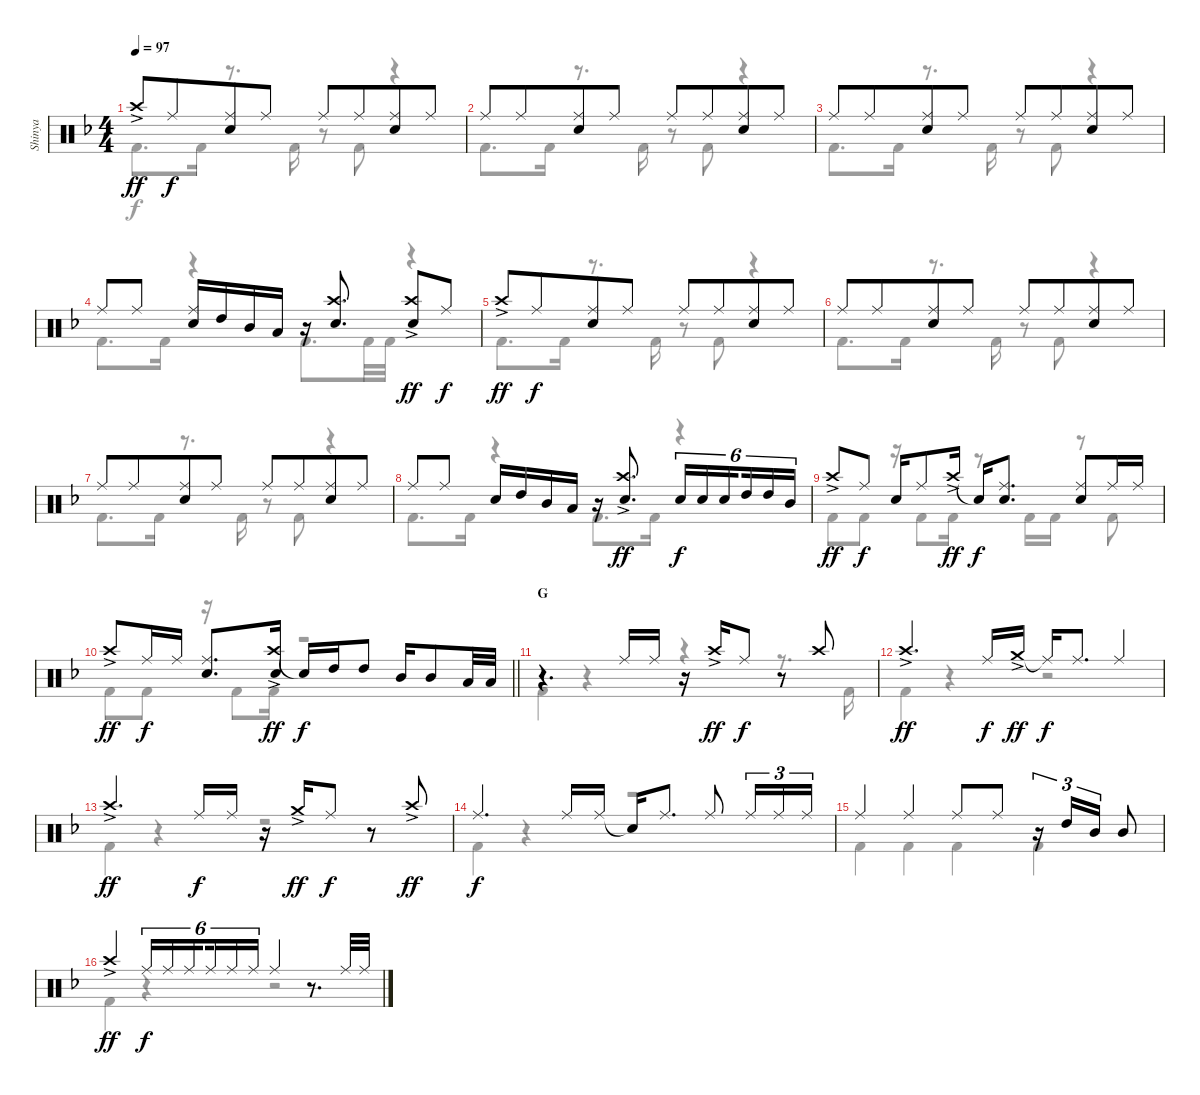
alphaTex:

\track ("Shinya" "Shinya") {mute instrument percussion}
\staff {score}
\articulation defaults
\voice
\ts (4 4)
\tempo 97
\clef neutral
\ks dminor "Crash high (hit)"{ac}.8{dy ff} "Ride (middle)".8{dy f beam merge}
("Ride (middle)" "Snare (hit) 2").8 "Ride (middle)".8 "Ride (middle)".8 "Ride (middle)".8{beam merge} ("Ride (middle)" "Snare (hit) 2").8 "Ride (middle)".8 |
"Ride (middle)".8 "Ride (middle)".8{beam merge} ("Ride (middle)" "Snare (hit) 2").8 "Ride (middle)".8 "Ride (middle)".8 "Ride (middle)".8{beam merge} ("Ride (middle)" "Snare (hit) 2").8 "Ride (middle)".8 |
"Ride (middle)".8 "Ride (middle)".8{beam merge} ("Ride (middle)" "Snare (hit) 2").8 "Ride (middle)".8 "Ride (middle)".8 "Ride (middle)".8{beam merge} ("Ride (middle)" "Snare (hit) 2").8 "Ride (middle)".8 |
"Ride (middle)".8 "Ride (middle)".8 ("Ride (middle)" "Snare (hit) 2").16 "High Tom (hit)".16 "Mid Tom (hit)".16 "Low Tom (hit)".16 r.16 ("Crash high (hit)" "Snare (hit) 2").8{d} ("Crash high (hit)"{ac} "Snare (hit) 2").8{dy ff} "Ride (middle)".8{dy f} |
"Crash high (hit)"{ac}.8{dy ff} "Ride (middle)".8{dy f beam merge} ("Ride (middle)" "Snare (hit) 2").8 "Ride (middle)".8 "Ride (middle)".8 "Ride (middle)".8{beam merge} ("Ride (middle)" "Snare (hit) 2").8 "Ride (middle)".8 |
"Ride (middle)".8 "Ride (middle)".8{beam merge} ("Ride (middle)" "Snare (hit) 2").8 "Ride (middle)".8 "Ride (middle)".8 "Ride (middle)".8{beam merge} ("Ride (middle)" "Snare (hit) 2").8 "Ride (middle)".8 |
"Ride (middle)".8 "Ride (middle)".8{beam merge} ("Ride (middle)" "Snare (hit) 2").8 "Ride (middle)".8 "Ride (middle)".8 "Ride (middle)".8{beam merge} ("Ride (middle)" "Snare (hit) 2").8 "Ride (middle)".8 |
"Ride (middle)".8 "Ride (middle)".8 "Snare (hit) 2".16 "High Tom (hit)".16 "Mid Tom (hit)".16 "Low Tom (hit)".16 r.16 ("Crash high (hit)"{ac} "Snare (hit) 2").8{d dy ff} "Snare (hit) 2".16{tu (6 4) dy f} "Snare (hit) 2".16{tu (6 4)} "Snare (hit) 2".16{tu (6 4) beam splitsecondary} "High Tom (hit)".16{tu (6 4)} "High Tom (hit)".16{tu (6 4)} "Mid Tom (hit)".16{tu (6 4)} |
"Crash high (hit)"{ac}.8{dy ff} "Ride (middle)".8{dy f} "Snare (hit) 2".16 "Ride (middle)".8 "Crash high (hit)"{ac}.16{dy ff} "Snare (hit)"{t}.16{dy f} ("Ride (middle)" "Snare (hit) 2").8{d} ("Ride (middle)" "Snare (hit) 2").8 "Ride (middle)".16 "Ride (middle)".16 |
\barLineRight lightlight "Crash high (hit)"{ac}.8{dy ff} "Ride (middle)".16{dy f} "Ride (middle)".16
("Ride (middle)" "Snare (hit) 2").8{d} ("Crash high (hit)"{ac} "Snare (hit) 2").16{dy ff} "Snare (hit)"{t}.16{dy f} "High Tom (hit)".16 "High Tom (hit)".8 "Mid Tom (hit)".16 "Mid Tom (hit)".8 "Low Tom (hit)".32 "Low Tom (hit)".32 |
\section ("" "G")
r.4{d} "Ride (middle)".16 "Ride (middle)".16 r.16 "Crash high (hit)"{ac}.16{dy ff} "Ride (middle)".8{dy f} r.8 "Crash high (hit)".8 |
"Crash high (hit)"{ac}.4{d dy ff} "Ride (middle)".16{dy f} "Crash medium (hit)"{ac}.16{dy ff} "Ride (middle)"{t}.16{dy f} "Ride (middle)".8{d} "Ride (middle)".4 |
"Crash high (hit)"{ac}.4{d dy ff} "Ride (middle)".16{dy f} "Ride (middle)".16 r.16 "Crash medium (hit)"{ac}.16{dy ff} "Ride (middle)".8{dy f} r.8 "Crash high (hit)"{ac}.8{dy ff} |
"Ride (middle)".4{d dy f} "Ride (middle)".16 "Ride (middle)".16 "Snare (hit)"{t}.16 "Ride (middle)".8{d} "Ride (middle)".8 "Ride (middle)".16{tu (3 2)} "Ride (middle)".16{tu (3 2)} "Ride (middle)".16{tu (3 2)} |
"Ride (middle)".4 "Ride (middle)".4 "Ride (middle)".8 "Ride (middle)".8 r.16{tu (3 2)} "High Tom (hit)".16{tu (3 2)} "Mid Tom (hit)".16{tu (3 2)} "Mid Tom (hit)".8 |
"Crash high (hit)"{ac}.4{dy ff} "Ride (middle)".16{tu (6 4) dy f} "Ride (middle)".16{tu (6 4)} "Ride (middle)".16{tu (6 4) beam splitsecondary} "Ride (middle)".16{tu (6 4)} "Ride (middle)".16{tu (6 4)} "Ride (middle)".16{tu (6 4)} "Ride (middle)".4 r.8{d} "Ride (middle)".32 "Ride (middle)".32
\voice
\clef neutral
\ottava regular
\simile none
\ks dminor "Kick (hit) 2".8{d dy f} "Kick (hit) 2".16
r.8{d} "Kick (hit) 2".16 r.8 "Kick (hit) 2".8 r.4 |
"Kick (hit) 2".8{d} "Kick (hit) 2".16 r.8{d} "Kick (hit) 2".16 r.8 "Kick (hit) 2".8 r.4 |
"Kick (hit) 2".8{d} "Kick (hit) 2".16 r.8{d} "Kick (hit) 2".16 r.8 "Kick (hit) 2".8 r.4 |
"Kick (hit) 2".8{d} "Kick (hit) 2".16 r.4 "Kick (hit) 2".8{d} "Kick (hit) 2".32 "Kick (hit) 2".32 r.4 |
"Kick (hit) 2".8{d} "Kick (hit) 2".16 r.8{d} "Kick (hit) 2".16 r.8 "Kick (hit) 2".8 r.4 |
"Kick (hit) 2".8{d} "Kick (hit) 2".16 r.8{d} "Kick (hit) 2".16 r.8 "Kick (hit) 2".8 r.4 |
"Kick (hit) 2".8{d} "Kick (hit) 2".16 r.8{d} "Kick (hit) 2".16 r.8 "Kick (hit) 2".8 r.4 |
"Kick (hit) 2".8{d} "Kick (hit) 2".16 r.4 "Kick (hit) 2".8{d} "Kick (hit) 2".16 r.4 |
"Kick (hit) 2".8 "Kick (hit) 2".8 r.16 "Kick (hit) 2".8 "Kick (hit) 2".16 r.8 "Kick (hit) 2".16 "Kick (hit) 2".16 r.8 "Kick (hit) 2".8 |
\barLineRight lightlight "Kick (hit) 2".8 "Kick (hit) 2".8
r.16 "Kick (hit) 2".8 "Kick (hit) 2".16 r.2 |
"Kick (hit) 2".4 r.4 r.4 r.8{d} "Kick (hit) 2".16 |
"Kick (hit) 2".4 r.4 r.2 |
"Kick (hit) 2".4 r.4 r.2 |
"Kick (hit) 2".4 r.4 r.2 |
"Kick (hit) 2".4 "Kick (hit) 2".4 "Kick (hit) 2".4 "Kick (hit) 2".4 |
"Kick (hit) 2".4 r.4 r.2
